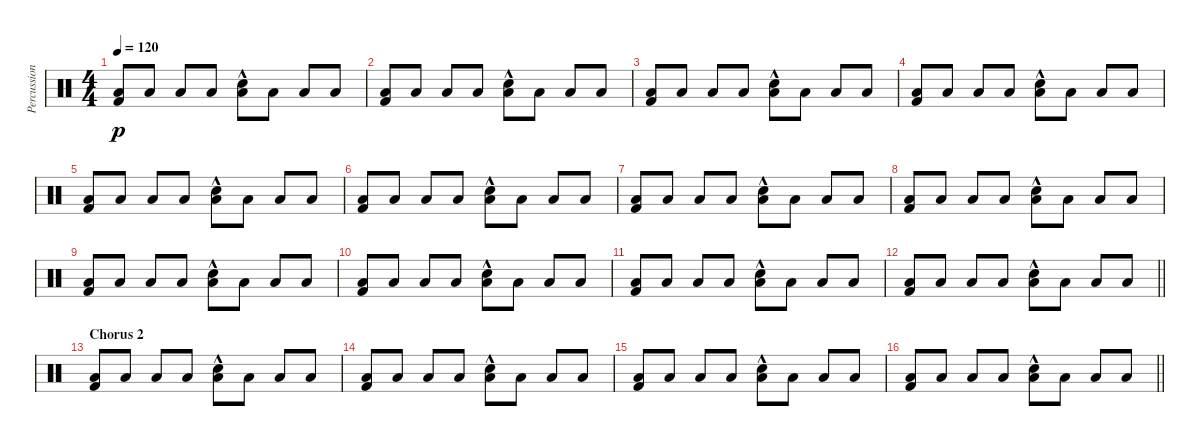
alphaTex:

\track ("Percussion" "Percussion") {instrument percussion}
\staff {score}
\articulation defaults
\ts (4 4)
\tempo 120
\clef neutral
\ks c
("Kick (hit) 2" "Low Floor Tom (hit)").8{dy p} "Low Floor Tom (hit)".8 "Low Floor Tom (hit)".8 "Low Floor Tom (hit)".8 ("Snare (hit) 2"{hac} "Low Floor Tom (hit)").8 "Low Floor Tom (hit)".8 "Low Floor Tom (hit)".8 "Low Floor Tom (hit)".8 |
("Kick (hit) 2" "Low Floor Tom (hit)").8 "Low Floor Tom (hit)".8 "Low Floor Tom (hit)".8 "Low Floor Tom (hit)".8 ("Snare (hit) 2"{hac} "Low Floor Tom (hit)").8 "Low Floor Tom (hit)".8 "Low Floor Tom (hit)".8 "Low Floor Tom (hit)".8 |
("Kick (hit) 2" "Low Floor Tom (hit)").8 "Low Floor Tom (hit)".8 "Low Floor Tom (hit)".8 "Low Floor Tom (hit)".8 ("Snare (hit) 2"{hac} "Low Floor Tom (hit)").8 "Low Floor Tom (hit)".8 "Low Floor Tom (hit)".8 "Low Floor Tom (hit)".8 |
("Kick (hit) 2" "Low Floor Tom (hit)").8 "Low Floor Tom (hit)".8 "Low Floor Tom (hit)".8 "Low Floor Tom (hit)".8 ("Snare (hit) 2"{hac} "Low Floor Tom (hit)").8 "Low Floor Tom (hit)".8 "Low Floor Tom (hit)".8 "Low Floor Tom (hit)".8 |
("Kick (hit) 2" "Low Floor Tom (hit)").8 "Low Floor Tom (hit)".8 "Low Floor Tom (hit)".8 "Low Floor Tom (hit)".8 ("Snare (hit) 2"{hac} "Low Floor Tom (hit)").8 "Low Floor Tom (hit)".8 "Low Floor Tom (hit)".8 "Low Floor Tom (hit)".8 |
("Kick (hit) 2" "Low Floor Tom (hit)").8 "Low Floor Tom (hit)".8 "Low Floor Tom (hit)".8 "Low Floor Tom (hit)".8 ("Snare (hit) 2"{hac} "Low Floor Tom (hit)").8 "Low Floor Tom (hit)".8 "Low Floor Tom (hit)".8 "Low Floor Tom (hit)".8 |
("Kick (hit) 2" "Low Floor Tom (hit)").8 "Low Floor Tom (hit)".8 "Low Floor Tom (hit)".8 "Low Floor Tom (hit)".8 ("Snare (hit) 2"{hac} "Low Floor Tom (hit)").8 "Low Floor Tom (hit)".8 "Low Floor Tom (hit)".8 "Low Floor Tom (hit)".8 |
("Kick (hit) 2" "Low Floor Tom (hit)").8 "Low Floor Tom (hit)".8 "Low Floor Tom (hit)".8 "Low Floor Tom (hit)".8 ("Snare (hit) 2"{hac} "Low Floor Tom (hit)").8 "Low Floor Tom (hit)".8 "Low Floor Tom (hit)".8 "Low Floor Tom (hit)".8 |
("Kick (hit) 2" "Low Floor Tom (hit)").8 "Low Floor Tom (hit)".8 "Low Floor Tom (hit)".8 "Low Floor Tom (hit)".8 ("Snare (hit) 2"{hac} "Low Floor Tom (hit)").8 "Low Floor Tom (hit)".8 "Low Floor Tom (hit)".8 "Low Floor Tom (hit)".8 |
("Kick (hit) 2" "Low Floor Tom (hit)").8 "Low Floor Tom (hit)".8 "Low Floor Tom (hit)".8 "Low Floor Tom (hit)".8 ("Snare (hit) 2"{hac} "Low Floor Tom (hit)").8 "Low Floor Tom (hit)".8 "Low Floor Tom (hit)".8 "Low Floor Tom (hit)".8 |
("Kick (hit) 2" "Low Floor Tom (hit)").8 "Low Floor Tom (hit)".8 "Low Floor Tom (hit)".8 "Low Floor Tom (hit)".8 ("Snare (hit) 2"{hac} "Low Floor Tom (hit)").8 "Low Floor Tom (hit)".8 "Low Floor Tom (hit)".8 "Low Floor Tom (hit)".8 |
\barLineRight lightlight
("Kick (hit) 2" "Low Floor Tom (hit)").8 "Low Floor Tom (hit)".8 "Low Floor Tom (hit)".8 "Low Floor Tom (hit)".8 ("Snare (hit) 2"{hac} "Low Floor Tom (hit)").8 "Low Floor Tom (hit)".8 "Low Floor Tom (hit)".8 "Low Floor Tom (hit)".8 |
\section ("" "Chorus 2")
("Kick (hit) 2" "Low Floor Tom (hit)").8 "Low Floor Tom (hit)".8 "Low Floor Tom (hit)".8 "Low Floor Tom (hit)".8 ("Snare (hit) 2"{hac} "Low Floor Tom (hit)").8 "Low Floor Tom (hit)".8 "Low Floor Tom (hit)".8 "Low Floor Tom (hit)".8 |
("Kick (hit) 2" "Low Floor Tom (hit)").8 "Low Floor Tom (hit)".8 "Low Floor Tom (hit)".8 "Low Floor Tom (hit)".8 ("Snare (hit) 2"{hac} "Low Floor Tom (hit)").8 "Low Floor Tom (hit)".8 "Low Floor Tom (hit)".8 "Low Floor Tom (hit)".8 |
("Kick (hit) 2" "Low Floor Tom (hit)").8 "Low Floor Tom (hit)".8 "Low Floor Tom (hit)".8 "Low Floor Tom (hit)".8 ("Snare (hit) 2"{hac} "Low Floor Tom (hit)").8 "Low Floor Tom (hit)".8 "Low Floor Tom (hit)".8 "Low Floor Tom (hit)".8 |
\barLineRight lightlight
("Kick (hit) 2" "Low Floor Tom (hit)").8 "Low Floor Tom (hit)".8 "Low Floor Tom (hit)".8 "Low Floor Tom (hit)".8 ("Snare (hit) 2"{hac} "Low Floor Tom (hit)").8 "Low Floor Tom (hit)".8 "Low Floor Tom (hit)".8 "Low Floor Tom (hit)".8
